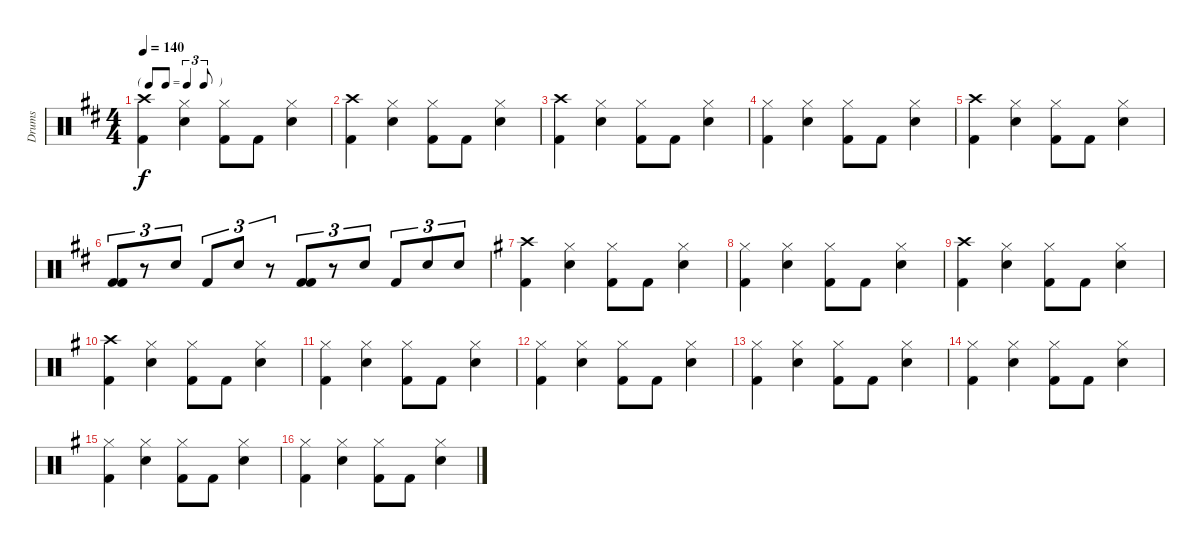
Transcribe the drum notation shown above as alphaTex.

\track ("Drums" "Drums") {instrument percussion}
\staff {score}
\articulation defaults
\ts (4 4)
\tf triplet8th
\tempo 140
\clef neutral
\ks bminor
("Kick (hit) 2" "Crash high (hit)").4{dy f} ("Snare (hit) 2" "Hi-Hat (closed)").4 ("Kick (hit) 2" "Hi-Hat (closed)").8 "Kick (hit) 2".8 ("Snare (hit) 2" "Hi-Hat (closed)").4 |
("Kick (hit) 2" "Crash high (hit)").4 ("Snare (hit) 2" "Hi-Hat (closed)").4 ("Kick (hit) 2" "Hi-Hat (closed)").8 "Kick (hit) 2".8 ("Snare (hit) 2" "Hi-Hat (closed)").4 |
("Kick (hit) 2" "Crash high (hit)").4 ("Snare (hit) 2" "Hi-Hat (closed)").4 ("Kick (hit) 2" "Hi-Hat (closed)").8 "Kick (hit) 2".8 ("Snare (hit) 2" "Hi-Hat (closed)").4 |
("Kick (hit) 2" "Hi-Hat (closed)").4 ("Snare (hit) 2" "Hi-Hat (closed)").4 ("Kick (hit) 2" "Hi-Hat (closed)").8 "Kick (hit) 2".8 ("Snare (hit) 2" "Hi-Hat (closed)").4 |
("Kick (hit) 2" "Crash high (hit)").4 ("Snare (hit) 2" "Hi-Hat (closed)").4 ("Kick (hit) 2" "Hi-Hat (closed)").8 "Kick (hit) 2".8 ("Snare (hit) 2" "Hi-Hat (closed)").4 |
("Kick (hit) 2" "Kick (hit) 2").8{tu (3 2)} r.8{tu (3 2)} "Snare (hit) 2".8{tu (3 2)} "Kick (hit) 2".8{tu (3 2)} "Snare (hit) 2".8{tu (3 2)} r.8{tu (3 2)} ("Kick (hit) 2" "Kick (hit) 2").8{tu (3 2)} r.8{tu (3 2)} "Snare (hit) 2".8{tu (3 2)} "Kick (hit) 2".8{tu (3 2)} "Snare (hit) 2".8{tu (3 2)} "Snare (hit) 2".8{tu (3 2)} |
\ks eminor
("Kick (hit) 2" "Crash high (hit)").4 ("Snare (hit) 2" "Hi-Hat (closed)").4 ("Kick (hit) 2" "Hi-Hat (closed)").8 "Kick (hit) 2".8 ("Snare (hit) 2" "Hi-Hat (closed)").4 |
("Kick (hit) 2" "Hi-Hat (closed)").4 ("Snare (hit) 2" "Hi-Hat (closed)").4 ("Kick (hit) 2" "Hi-Hat (closed)").8 "Kick (hit) 2".8 ("Snare (hit) 2" "Hi-Hat (closed)").4 |
("Kick (hit) 2" "Crash high (hit)").4 ("Snare (hit) 2" "Hi-Hat (closed)").4 ("Kick (hit) 2" "Hi-Hat (closed)").8 "Kick (hit) 2".8 ("Snare (hit) 2" "Hi-Hat (closed)").4 |
("Kick (hit) 2" "Crash high (hit)").4 ("Snare (hit) 2" "Hi-Hat (closed)").4 ("Kick (hit) 2" "Hi-Hat (closed)").8 "Kick (hit) 2".8 ("Snare (hit) 2" "Hi-Hat (closed)").4 |
("Kick (hit) 2" "Hi-Hat (closed)").4 ("Snare (hit) 2" "Hi-Hat (closed)").4 ("Kick (hit) 2" "Hi-Hat (closed)").8 "Kick (hit) 2".8 ("Snare (hit) 2" "Hi-Hat (closed)").4 |
("Kick (hit) 2" "Hi-Hat (closed)").4 ("Snare (hit) 2" "Hi-Hat (closed)").4 ("Kick (hit) 2" "Hi-Hat (closed)").8 "Kick (hit) 2".8 ("Snare (hit) 2" "Hi-Hat (closed)").4 |
("Kick (hit) 2" "Hi-Hat (closed)").4 ("Snare (hit) 2" "Hi-Hat (closed)").4 ("Kick (hit) 2" "Hi-Hat (closed)").8 "Kick (hit) 2".8 ("Snare (hit) 2" "Hi-Hat (closed)").4 |
("Kick (hit) 2" "Hi-Hat (closed)").4 ("Snare (hit) 2" "Hi-Hat (closed)").4 ("Kick (hit) 2" "Hi-Hat (closed)").8 "Kick (hit) 2".8 ("Snare (hit) 2" "Hi-Hat (closed)").4 |
("Kick (hit) 2" "Hi-Hat (closed)").4 ("Snare (hit) 2" "Hi-Hat (closed)").4 ("Kick (hit) 2" "Hi-Hat (closed)").8 "Kick (hit) 2".8 ("Snare (hit) 2" "Hi-Hat (closed)").4 |
("Kick (hit) 2" "Hi-Hat (closed)").4 ("Snare (hit) 2" "Hi-Hat (closed)").4 ("Kick (hit) 2" "Hi-Hat (closed)").8 "Kick (hit) 2".8 ("Snare (hit) 2" "Hi-Hat (closed)").4
